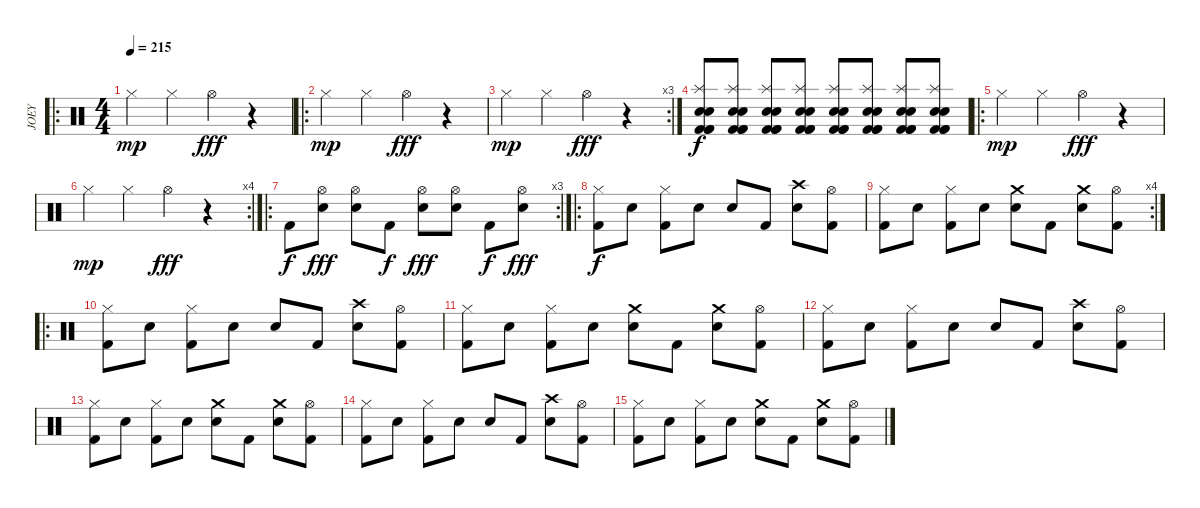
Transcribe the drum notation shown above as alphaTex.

\track ("JOEY" "JOEY") {instrument percussion}
\staff {score}
\articulation defaults
\ro
\ts (4 4)
\tempo 215
\clef neutral
\ks c "Hi-Hat (closed)".4{dy mp} "Hi-Hat (closed)".4 "Hi-Hat (open)".4{dy fff}
r.4 |
\ro "Hi-Hat (closed)".4{dy mp} "Hi-Hat (closed)".4 "Hi-Hat (open)".4{dy fff}
r.4 |
\rc 3 "Hi-Hat (closed)".4{dy mp} "Hi-Hat (closed)".4 "Hi-Hat (open)".4{dy fff}
r.4 |
("Kick (hit) 2" "Electric Snare (hit)" "Kick (hit) 2" "Splash (hit)" "Snare (hit) 2" "Kick (hit) 2").8{dy f} ("Kick (hit) 2" "Electric Snare (hit)" "Kick (hit) 2" "Splash (hit)" "Snare (hit) 2" "Kick (hit) 2").8 ("Kick (hit) 2" "Electric Snare (hit)" "Kick (hit) 2" "Splash (hit)" "Snare (hit) 2" "Kick (hit) 2").8 ("Kick (hit) 2" "Electric Snare (hit)" "Kick (hit) 2" "Splash (hit)" "Snare (hit) 2" "Kick (hit) 2").8 ("Kick (hit) 2" "Electric Snare (hit)" "Kick (hit) 2" "Splash (hit)" "Snare (hit) 2" "Kick (hit) 2").8 ("Kick (hit) 2" "Electric Snare (hit)" "Kick (hit) 2" "Splash (hit)" "Snare (hit) 2" "Kick (hit) 2").8 ("Kick (hit) 2" "Electric Snare (hit)" "Kick (hit) 2" "Splash (hit)" "Snare (hit) 2" "Kick (hit) 2").8 ("Kick (hit) 2" "Electric Snare (hit)" "Kick (hit) 2" "Splash (hit)" "Snare (hit) 2" "Kick (hit) 2").8 |
\ro "Hi-Hat (closed)".4{dy mp} "Hi-Hat (closed)".4 "Hi-Hat (open)".4{dy fff}
r.4 |
\rc 4 "Hi-Hat (closed)".4{dy mp} "Hi-Hat (closed)".4 "Hi-Hat (open)".4{dy fff}
r.4 |
\ro
\rc 3 "Kick (hit) 2".8{dy f}
("Hi-Hat (open)" "Snare (hit) 2").8{dy fff} ("Hi-Hat (open)" "Snare (hit) 2").8 "Kick (hit) 2".8{dy f} ("Hi-Hat (open)" "Snare (hit) 2").8{dy fff} ("Hi-Hat (open)" "Snare (hit) 2").8 "Kick (hit) 2".8{dy f} ("Hi-Hat (open)" "Snare (hit) 2").8{dy fff} |
\ro
("Hi-Hat (closed)" "Kick (hit) 2").8{dy f} "Snare (hit) 2".8 ("Hi-Hat (closed)" "Kick (hit) 2").8 "Snare (hit) 2".8 "Snare (hit) 2".8 "Kick (hit) 2".8 ("Crash high (hit)" "Snare (hit) 2").8 ("Hi-Hat (open)" "Kick (hit) 2").8 |
\rc 4
("Hi-Hat (closed)" "Kick (hit) 2").8 "Snare (hit) 2".8 ("Hi-Hat (closed)" "Kick (hit) 2").8 "Snare (hit) 2".8 ("Crash medium (hit)" "Snare (hit) 2").8 "Kick (hit) 2".8 ("Crash medium (hit)" "Snare (hit) 2").8 ("Hi-Hat (open)" "Kick (hit) 2").8 |
\ro
("Hi-Hat (closed)" "Kick (hit) 2").8 "Snare (hit) 2".8 ("Hi-Hat (closed)" "Kick (hit) 2").8 "Snare (hit) 2".8 "Snare (hit) 2".8 "Kick (hit) 2".8 ("Crash high (hit)" "Snare (hit) 2").8 ("Hi-Hat (open)" "Kick (hit) 2").8 |
("Hi-Hat (closed)" "Kick (hit) 2").8 "Snare (hit) 2".8 ("Hi-Hat (closed)" "Kick (hit) 2").8 "Snare (hit) 2".8 ("Crash medium (hit)" "Snare (hit) 2").8 "Kick (hit) 2".8 ("Crash medium (hit)" "Snare (hit) 2").8 ("Hi-Hat (open)" "Kick (hit) 2").8 |
("Hi-Hat (closed)" "Kick (hit) 2").8 "Snare (hit) 2".8 ("Hi-Hat (closed)" "Kick (hit) 2").8 "Snare (hit) 2".8 "Snare (hit) 2".8 "Kick (hit) 2".8 ("Crash high (hit)" "Snare (hit) 2").8 ("Hi-Hat (open)" "Kick (hit) 2").8 |
("Hi-Hat (closed)" "Kick (hit) 2").8 "Snare (hit) 2".8 ("Hi-Hat (closed)" "Kick (hit) 2").8 "Snare (hit) 2".8 ("Crash medium (hit)" "Snare (hit) 2").8 "Kick (hit) 2".8 ("Crash medium (hit)" "Snare (hit) 2").8 ("Hi-Hat (open)" "Kick (hit) 2").8 |
("Hi-Hat (closed)" "Kick (hit) 2").8 "Snare (hit) 2".8 ("Hi-Hat (closed)" "Kick (hit) 2").8 "Snare (hit) 2".8 "Snare (hit) 2".8 "Kick (hit) 2".8 ("Crash high (hit)" "Snare (hit) 2").8 ("Hi-Hat (open)" "Kick (hit) 2").8 |
("Hi-Hat (closed)" "Kick (hit) 2").8 "Snare (hit) 2".8 ("Hi-Hat (closed)" "Kick (hit) 2").8 "Snare (hit) 2".8 ("Crash medium (hit)" "Snare (hit) 2").8 "Kick (hit) 2".8 ("Crash medium (hit)" "Snare (hit) 2").8 ("Hi-Hat (open)" "Kick (hit) 2").8
